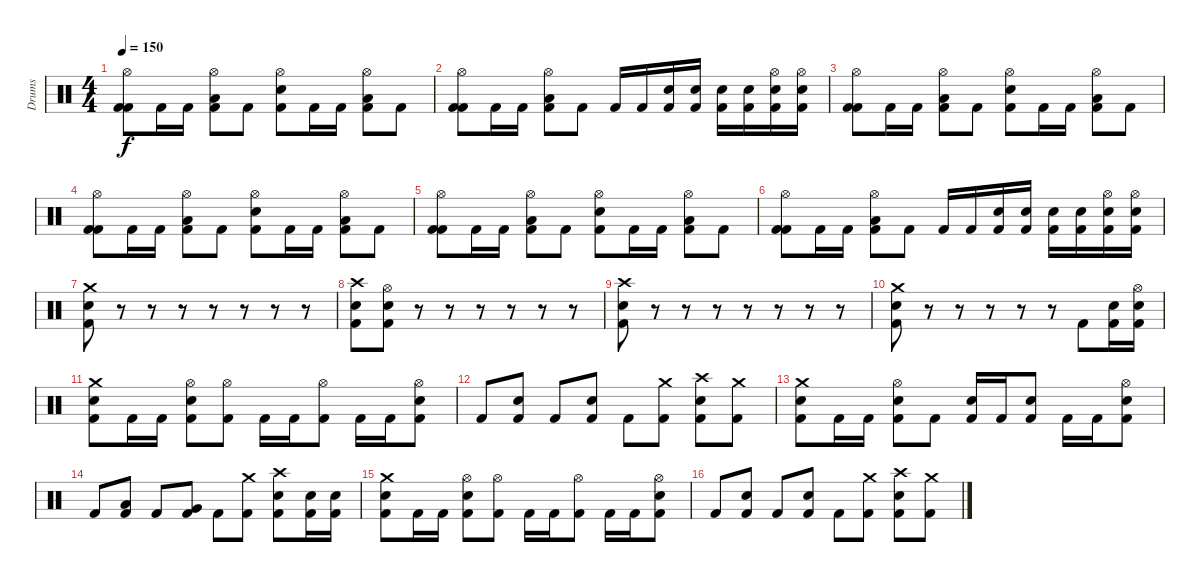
\track ("Drums" "Drums") {instrument percussion}
\staff {score}
\articulation defaults
\ts (4 4)
\tempo 150
\clef neutral
\ks c
("Hi-Hat (open)" "Kick (hit) 2" "Kick (hit) 2").8{dy f} "Kick (hit) 2".16 "Kick (hit) 2".16 ("Hi-Hat (open)" "Low Floor Tom (hit)" "Kick (hit) 2").8 "Kick (hit) 2".8 ("Hi-Hat (open)" "Snare (hit) 2" "Kick (hit) 2").8 "Kick (hit) 2".16 "Kick (hit) 2".16 ("Hi-Hat (open)" "Low Floor Tom (hit)" "Kick (hit) 2").8 "Kick (hit) 2".8 |
("Hi-Hat (open)" "Kick (hit) 2" "Kick (hit) 2").8{volume 12} "Kick (hit) 2".16 "Kick (hit) 2".16 ("Hi-Hat (open)" "Low Floor Tom (hit)" "Kick (hit) 2").8 "Kick (hit) 2".8 "Kick (hit) 2".16 "Kick (hit) 2".16 ("Snare (hit) 2" "Kick (hit) 2").16 ("Snare (hit) 2" "Kick (hit) 2").16 ("Snare (hit) 2" "Kick (hit) 2").16 ("Snare (hit) 2" "Kick (hit) 2").16 ("Hi-Hat (open)" "Snare (hit) 2" "Kick (hit) 2").16 ("Hi-Hat (open)" "Snare (hit) 2" "Kick (hit) 2").16 |
("Hi-Hat (open)" "Kick (hit) 2" "Kick (hit) 2").8{volume 12} "Kick (hit) 2".16 "Kick (hit) 2".16 ("Hi-Hat (open)" "Low Floor Tom (hit)" "Kick (hit) 2").8 "Kick (hit) 2".8 ("Hi-Hat (open)" "Snare (hit) 2" "Kick (hit) 2").8 "Kick (hit) 2".16 "Kick (hit) 2".16 ("Hi-Hat (open)" "Low Floor Tom (hit)" "Kick (hit) 2").8 "Kick (hit) 2".8 |
("Hi-Hat (open)" "Kick (hit) 2" "Kick (hit) 2").8{volume 12} "Kick (hit) 2".16 "Kick (hit) 2".16 ("Hi-Hat (open)" "Low Floor Tom (hit)" "Kick (hit) 2").8 "Kick (hit) 2".8 ("Hi-Hat (open)" "Snare (hit) 2" "Kick (hit) 2").8 "Kick (hit) 2".16 "Kick (hit) 2".16 ("Hi-Hat (open)" "Low Floor Tom (hit)" "Kick (hit) 2").8 "Kick (hit) 2".8 |
("Hi-Hat (open)" "Kick (hit) 2" "Kick (hit) 2").8 "Kick (hit) 2".16 "Kick (hit) 2".16 ("Hi-Hat (open)" "Low Floor Tom (hit)" "Kick (hit) 2").8 "Kick (hit) 2".8 ("Hi-Hat (open)" "Snare (hit) 2" "Kick (hit) 2").8 "Kick (hit) 2".16 "Kick (hit) 2".16 ("Hi-Hat (open)" "Low Floor Tom (hit)" "Kick (hit) 2").8 "Kick (hit) 2".8 |
("Hi-Hat (open)" "Kick (hit) 2" "Kick (hit) 2").8{volume 12} "Kick (hit) 2".16 "Kick (hit) 2".16 ("Hi-Hat (open)" "Low Floor Tom (hit)" "Kick (hit) 2").8 "Kick (hit) 2".8 "Kick (hit) 2".16 "Kick (hit) 2".16 ("Snare (hit) 2" "Kick (hit) 2").16 ("Snare (hit) 2" "Kick (hit) 2").16 ("Snare (hit) 2" "Kick (hit) 2").16 ("Snare (hit) 2" "Kick (hit) 2").16 ("Hi-Hat (open)" "Snare (hit) 2" "Kick (hit) 2").16 ("Hi-Hat (open)" "Snare (hit) 2" "Kick (hit) 2").16 |
("Crash medium (hit)" "Snare (hit) 2" "Kick (hit) 2").8 r.8 r.8 r.8 r.8 r.8 r.8 r.8 |
("Crash high (hit)" "Snare (hit) 2" "Kick (hit) 2").8 ("Hi-Hat (open)" "Snare (hit) 2" "Kick (hit) 2").8 r.8 r.8 r.8 r.8 r.8 r.8 |
("Crash high (hit)" "Snare (hit) 2" "Kick (hit) 2").8 r.8 r.8 r.8 r.8 r.8 r.8 r.8 |
("Crash medium (hit)" "Snare (hit) 2" "Kick (hit) 2").8 r.8 r.8 r.8 r.8 r.8 "Kick (hit) 2".8 ("Snare (hit) 2" "Kick (hit) 2").16 ("Hi-Hat (open)" "Snare (hit) 2" "Kick (hit) 2").16 |
("Crash medium (hit)" "Snare (hit) 2" "Kick (hit) 2").8 "Kick (hit) 2".16 "Kick (hit) 2".16 ("Hi-Hat (open)" "Snare (hit) 2" "Kick (hit) 2").8 ("Hi-Hat (open)" "Kick (hit) 2").8 "Kick (hit) 2".16 "Kick (hit) 2".16 ("Hi-Hat (open)" "Kick (hit) 2").8 "Kick (hit) 2".16 "Kick (hit) 2".16 ("Hi-Hat (open)" "Snare (hit) 2" "Kick (hit) 2").8 |
"Kick (hit) 2".8 ("Snare (hit) 2" "Kick (hit) 2").8 "Kick (hit) 2".8 ("Snare (hit) 2" "Kick (hit) 2").8 "Kick (hit) 2".8 ("Crash medium (hit)" "Kick (hit) 2").8 ("Crash high (hit)" "Snare (hit) 2" "Kick (hit) 2").8 ("Crash medium (hit)" "Kick (hit) 2").8 |
("Crash medium (hit)" "Snare (hit) 2" "Kick (hit) 2").8 "Kick (hit) 2".16 "Kick (hit) 2".16 ("Hi-Hat (open)" "Snare (hit) 2" "Kick (hit) 2").8 "Kick (hit) 2".8 ("Snare (hit) 2" "Kick (hit) 2").16 "Kick (hit) 2".16 ("Snare (hit) 2" "Kick (hit) 2").8 "Kick (hit) 2".16 "Kick (hit) 2".16 ("Hi-Hat (open)" "Snare (hit) 2" "Kick (hit) 2").8 |
"Kick (hit) 2".8 ("Low Tom (hit)" "Kick (hit) 2").8 "Kick (hit) 2".8 ("Very Low Tom (hit)" "Kick (hit) 2").8 "Kick (hit) 2".8 ("Crash medium (hit)" "Kick (hit) 2").8 ("Crash high (hit)" "Snare (hit) 2" "Kick (hit) 2").8 ("Snare (hit) 2" "Kick (hit) 2").16 ("Snare (hit) 2" "Kick (hit) 2").16 |
("Crash medium (hit)" "Snare (hit) 2" "Kick (hit) 2").8 "Kick (hit) 2".16 "Kick (hit) 2".16 ("Hi-Hat (open)" "Snare (hit) 2" "Kick (hit) 2").8 ("Hi-Hat (open)" "Kick (hit) 2").8 "Kick (hit) 2".16 "Kick (hit) 2".16 ("Hi-Hat (open)" "Kick (hit) 2").8 "Kick (hit) 2".16 "Kick (hit) 2".16 ("Hi-Hat (open)" "Snare (hit) 2" "Kick (hit) 2").8 |
"Kick (hit) 2".8 ("Snare (hit) 2" "Kick (hit) 2").8 "Kick (hit) 2".8 ("Snare (hit) 2" "Kick (hit) 2").8 "Kick (hit) 2".8 ("Crash medium (hit)" "Kick (hit) 2").8 ("Crash high (hit)" "Snare (hit) 2" "Kick (hit) 2").8 ("Crash medium (hit)" "Kick (hit) 2").8
